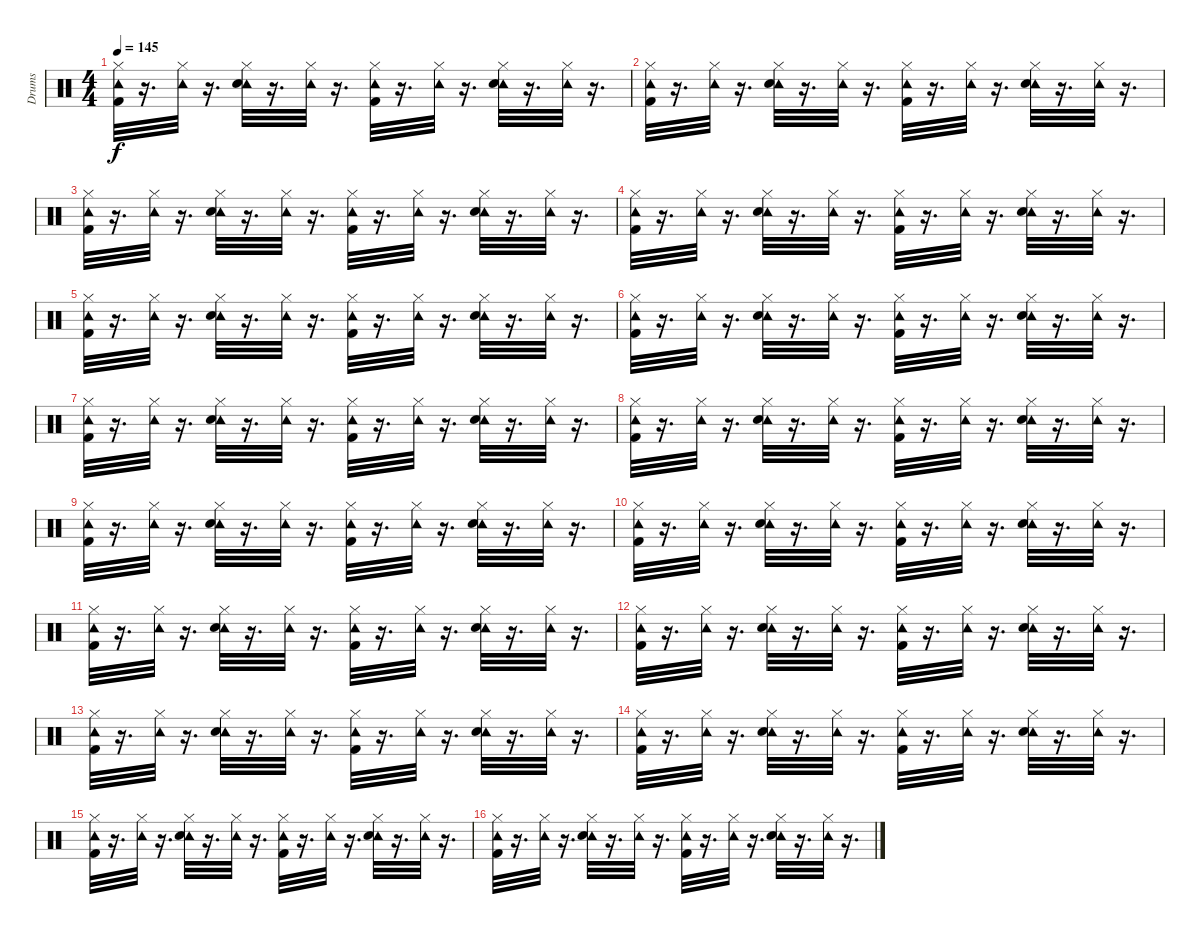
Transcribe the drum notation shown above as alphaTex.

\track ("Drums" "Drums") {instrument percussion}
\staff {score}
\articulation defaults
\ts (4 4)
\tempo 145
\clef neutral
\ks c
("Tambourine (hit)" "Kick (hit) 2" "Hi-Hat (closed)").32{dy f} r.16{d} ("Tambourine (hit)" "Hi-Hat (closed)").32 r.16{d} ("Tambourine (hit)" "Hi-Hat (closed)" "Snare (hit) 2").32 r.16{d} ("Tambourine (hit)" "Hi-Hat (closed)").32 r.16{d} ("Tambourine (hit)" "Kick (hit) 2" "Hi-Hat (closed)").32 r.16{d} ("Tambourine (hit)" "Hi-Hat (closed)").32 r.16{d} ("Tambourine (hit)" "Snare (hit) 2" "Hi-Hat (closed)").32 r.16{d} ("Tambourine (hit)" "Hi-Hat (closed)").32 r.16{d} |
("Tambourine (hit)" "Kick (hit) 2" "Hi-Hat (closed)").32 r.16{d} ("Tambourine (hit)" "Hi-Hat (closed)").32 r.16{d} ("Tambourine (hit)" "Hi-Hat (closed)" "Snare (hit) 2").32 r.16{d} ("Tambourine (hit)" "Hi-Hat (closed)").32 r.16{d} ("Tambourine (hit)" "Kick (hit) 2" "Hi-Hat (closed)").32 r.16{d} ("Tambourine (hit)" "Hi-Hat (closed)").32 r.16{d} ("Tambourine (hit)" "Snare (hit) 2" "Hi-Hat (closed)").32 r.16{d} ("Tambourine (hit)" "Hi-Hat (closed)").32 r.16{d} |
("Tambourine (hit)" "Kick (hit) 2" "Hi-Hat (closed)").32 r.16{d} ("Tambourine (hit)" "Hi-Hat (closed)").32 r.16{d} ("Tambourine (hit)" "Hi-Hat (closed)" "Snare (hit) 2").32 r.16{d} ("Tambourine (hit)" "Hi-Hat (closed)").32 r.16{d} ("Tambourine (hit)" "Kick (hit) 2" "Hi-Hat (closed)").32 r.16{d} ("Tambourine (hit)" "Hi-Hat (closed)").32 r.16{d} ("Tambourine (hit)" "Snare (hit) 2" "Hi-Hat (closed)").32 r.16{d} ("Tambourine (hit)" "Hi-Hat (closed)").32 r.16{d} |
("Tambourine (hit)" "Kick (hit) 2" "Hi-Hat (closed)").32 r.16{d} ("Tambourine (hit)" "Hi-Hat (closed)").32 r.16{d} ("Tambourine (hit)" "Hi-Hat (closed)" "Snare (hit) 2").32 r.16{d} ("Tambourine (hit)" "Hi-Hat (closed)").32 r.16{d} ("Tambourine (hit)" "Kick (hit) 2" "Hi-Hat (closed)").32 r.16{d} ("Tambourine (hit)" "Hi-Hat (closed)").32 r.16{d} ("Tambourine (hit)" "Snare (hit) 2" "Hi-Hat (closed)").32 r.16{d} ("Tambourine (hit)" "Hi-Hat (closed)").32 r.16{d} |
("Tambourine (hit)" "Kick (hit) 2" "Hi-Hat (closed)").32 r.16{d} ("Tambourine (hit)" "Hi-Hat (closed)").32 r.16{d} ("Tambourine (hit)" "Hi-Hat (closed)" "Snare (hit) 2").32 r.16{d} ("Tambourine (hit)" "Hi-Hat (closed)").32 r.16{d} ("Tambourine (hit)" "Kick (hit) 2" "Hi-Hat (closed)").32 r.16{d} ("Tambourine (hit)" "Hi-Hat (closed)").32 r.16{d} ("Tambourine (hit)" "Snare (hit) 2" "Hi-Hat (closed)").32 r.16{d} ("Tambourine (hit)" "Hi-Hat (closed)").32 r.16{d} |
("Tambourine (hit)" "Kick (hit) 2" "Hi-Hat (closed)").32 r.16{d} ("Tambourine (hit)" "Hi-Hat (closed)").32 r.16{d} ("Tambourine (hit)" "Hi-Hat (closed)" "Snare (hit) 2").32 r.16{d} ("Tambourine (hit)" "Hi-Hat (closed)").32 r.16{d} ("Tambourine (hit)" "Kick (hit) 2" "Hi-Hat (closed)").32 r.16{d} ("Tambourine (hit)" "Hi-Hat (closed)").32 r.16{d} ("Tambourine (hit)" "Snare (hit) 2" "Hi-Hat (closed)").32 r.16{d} ("Tambourine (hit)" "Hi-Hat (closed)").32 r.16{d} |
("Tambourine (hit)" "Kick (hit) 2" "Hi-Hat (closed)").32 r.16{d} ("Tambourine (hit)" "Hi-Hat (closed)").32 r.16{d} ("Tambourine (hit)" "Hi-Hat (closed)" "Snare (hit) 2").32 r.16{d} ("Tambourine (hit)" "Hi-Hat (closed)").32 r.16{d} ("Tambourine (hit)" "Kick (hit) 2" "Hi-Hat (closed)").32 r.16{d} ("Tambourine (hit)" "Hi-Hat (closed)").32 r.16{d} ("Tambourine (hit)" "Snare (hit) 2" "Hi-Hat (closed)").32 r.16{d} ("Tambourine (hit)" "Hi-Hat (closed)").32 r.16{d} |
("Tambourine (hit)" "Kick (hit) 2" "Hi-Hat (closed)").32 r.16{d} ("Tambourine (hit)" "Hi-Hat (closed)").32 r.16{d} ("Tambourine (hit)" "Hi-Hat (closed)" "Snare (hit) 2").32 r.16{d} ("Tambourine (hit)" "Hi-Hat (closed)").32 r.16{d} ("Tambourine (hit)" "Kick (hit) 2" "Hi-Hat (closed)").32 r.16{d} ("Tambourine (hit)" "Hi-Hat (closed)").32 r.16{d} ("Tambourine (hit)" "Snare (hit) 2" "Hi-Hat (closed)").32 r.16{d} ("Tambourine (hit)" "Hi-Hat (closed)").32 r.16{d} |
("Tambourine (hit)" "Kick (hit) 2" "Hi-Hat (closed)").32 r.16{d} ("Tambourine (hit)" "Hi-Hat (closed)").32 r.16{d} ("Tambourine (hit)" "Hi-Hat (closed)" "Snare (hit) 2").32 r.16{d} ("Tambourine (hit)" "Hi-Hat (closed)").32 r.16{d} ("Tambourine (hit)" "Kick (hit) 2" "Hi-Hat (closed)").32 r.16{d} ("Tambourine (hit)" "Hi-Hat (closed)").32 r.16{d} ("Tambourine (hit)" "Snare (hit) 2" "Hi-Hat (closed)").32 r.16{d} ("Tambourine (hit)" "Hi-Hat (closed)").32 r.16{d} |
("Tambourine (hit)" "Kick (hit) 2" "Hi-Hat (closed)").32 r.16{d} ("Tambourine (hit)" "Hi-Hat (closed)").32 r.16{d} ("Tambourine (hit)" "Hi-Hat (closed)" "Snare (hit) 2").32 r.16{d} ("Tambourine (hit)" "Hi-Hat (closed)").32 r.16{d} ("Tambourine (hit)" "Kick (hit) 2" "Hi-Hat (closed)").32 r.16{d} ("Tambourine (hit)" "Hi-Hat (closed)").32 r.16{d} ("Tambourine (hit)" "Snare (hit) 2" "Hi-Hat (closed)").32 r.16{d} ("Tambourine (hit)" "Hi-Hat (closed)").32 r.16{d} |
("Tambourine (hit)" "Kick (hit) 2" "Hi-Hat (closed)").32 r.16{d} ("Tambourine (hit)" "Hi-Hat (closed)").32 r.16{d} ("Tambourine (hit)" "Hi-Hat (closed)" "Snare (hit) 2").32 r.16{d} ("Tambourine (hit)" "Hi-Hat (closed)").32 r.16{d} ("Tambourine (hit)" "Kick (hit) 2" "Hi-Hat (closed)").32 r.16{d} ("Tambourine (hit)" "Hi-Hat (closed)").32 r.16{d} ("Tambourine (hit)" "Snare (hit) 2" "Hi-Hat (closed)").32 r.16{d} ("Tambourine (hit)" "Hi-Hat (closed)").32 r.16{d} |
("Tambourine (hit)" "Kick (hit) 2" "Hi-Hat (closed)").32 r.16{d} ("Tambourine (hit)" "Hi-Hat (closed)").32 r.16{d} ("Tambourine (hit)" "Hi-Hat (closed)" "Snare (hit) 2").32 r.16{d} ("Tambourine (hit)" "Hi-Hat (closed)").32 r.16{d} ("Tambourine (hit)" "Kick (hit) 2" "Hi-Hat (closed)").32 r.16{d} ("Tambourine (hit)" "Hi-Hat (closed)").32 r.16{d} ("Tambourine (hit)" "Snare (hit) 2" "Hi-Hat (closed)").32 r.16{d} ("Tambourine (hit)" "Hi-Hat (closed)").32 r.16{d} |
("Tambourine (hit)" "Kick (hit) 2" "Hi-Hat (closed)").32 r.16{d} ("Tambourine (hit)" "Hi-Hat (closed)").32 r.16{d} ("Tambourine (hit)" "Hi-Hat (closed)" "Snare (hit) 2").32 r.16{d} ("Tambourine (hit)" "Hi-Hat (closed)").32 r.16{d} ("Tambourine (hit)" "Kick (hit) 2" "Hi-Hat (closed)").32 r.16{d} ("Tambourine (hit)" "Hi-Hat (closed)").32 r.16{d} ("Tambourine (hit)" "Snare (hit) 2" "Hi-Hat (closed)").32 r.16{d} ("Tambourine (hit)" "Hi-Hat (closed)").32 r.16{d} |
("Tambourine (hit)" "Kick (hit) 2" "Hi-Hat (closed)").32 r.16{d} ("Tambourine (hit)" "Hi-Hat (closed)").32 r.16{d} ("Tambourine (hit)" "Hi-Hat (closed)" "Snare (hit) 2").32 r.16{d} ("Tambourine (hit)" "Hi-Hat (closed)").32 r.16{d} ("Tambourine (hit)" "Kick (hit) 2" "Hi-Hat (closed)").32 r.16{d} ("Tambourine (hit)" "Hi-Hat (closed)").32 r.16{d} ("Tambourine (hit)" "Snare (hit) 2" "Hi-Hat (closed)").32 r.16{d} ("Tambourine (hit)" "Hi-Hat (closed)").32 r.16{d} |
("Tambourine (hit)" "Kick (hit) 2" "Hi-Hat (closed)").32 r.16{d} ("Tambourine (hit)" "Hi-Hat (closed)").32 r.16{d} ("Tambourine (hit)" "Hi-Hat (closed)" "Snare (hit) 2").32 r.16{d} ("Tambourine (hit)" "Hi-Hat (closed)").32 r.16{d} ("Tambourine (hit)" "Kick (hit) 2" "Hi-Hat (closed)").32 r.16{d} ("Tambourine (hit)" "Hi-Hat (closed)").32 r.16{d} ("Tambourine (hit)" "Snare (hit) 2" "Hi-Hat (closed)").32 r.16{d} ("Tambourine (hit)" "Hi-Hat (closed)").32 r.16{d} |
("Tambourine (hit)" "Kick (hit) 2" "Hi-Hat (closed)").32 r.16{d} ("Tambourine (hit)" "Hi-Hat (closed)").32 r.16{d} ("Tambourine (hit)" "Hi-Hat (closed)" "Snare (hit) 2").32 r.16{d} ("Tambourine (hit)" "Hi-Hat (closed)").32 r.16{d} ("Tambourine (hit)" "Kick (hit) 2" "Hi-Hat (closed)").32 r.16{d} ("Tambourine (hit)" "Hi-Hat (closed)").32 r.16{d} ("Tambourine (hit)" "Snare (hit) 2" "Hi-Hat (closed)").32 r.16{d} ("Tambourine (hit)" "Hi-Hat (closed)").32 r.16{d}
